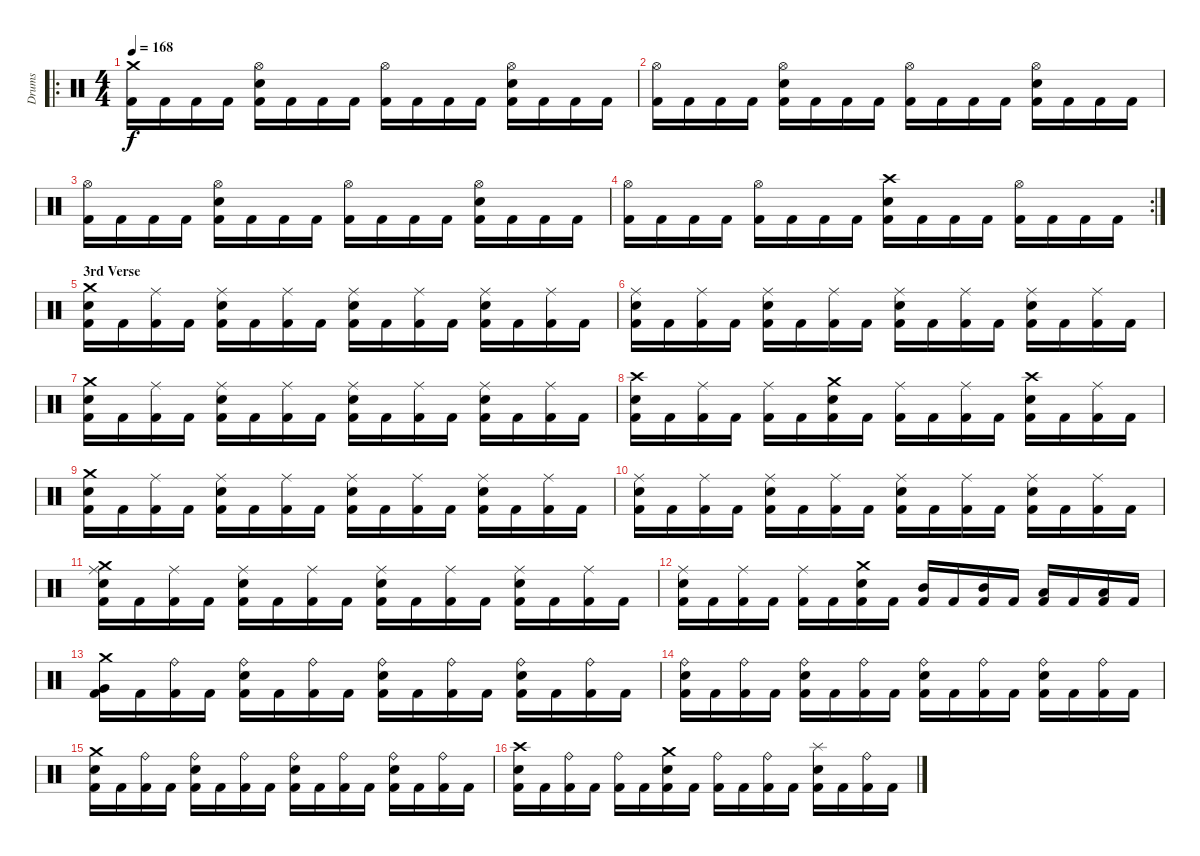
\track ("Drums" "Drums") {instrument percussion}
\staff {score}
\articulation defaults
\ro
\ts (4 4)
\tempo 168
\clef neutral
\ks c
("Kick (hit) 2" "Crash medium (hit)").16{dy f} "Kick (hit) 2".16 "Kick (hit) 2".16 "Kick (hit) 2".16 ("Kick (hit) 2" "Snare (hit) 2" "Hi-Hat (open)").16 "Kick (hit) 2".16 "Kick (hit) 2".16 "Kick (hit) 2".16 ("Kick (hit) 2" "Hi-Hat (open)").16 "Kick (hit) 2".16 "Kick (hit) 2".16 "Kick (hit) 2".16 ("Kick (hit) 2" "Snare (hit) 2" "Hi-Hat (open)").16 "Kick (hit) 2".16 "Kick (hit) 2".16 "Kick (hit) 2".16 |
("Kick (hit) 2" "Hi-Hat (open)").16 "Kick (hit) 2".16 "Kick (hit) 2".16 "Kick (hit) 2".16 ("Kick (hit) 2" "Snare (hit) 2" "Hi-Hat (open)").16 "Kick (hit) 2".16 "Kick (hit) 2".16 "Kick (hit) 2".16 ("Kick (hit) 2" "Hi-Hat (open)").16 "Kick (hit) 2".16 "Kick (hit) 2".16 "Kick (hit) 2".16 ("Kick (hit) 2" "Snare (hit) 2" "Hi-Hat (open)").16 "Kick (hit) 2".16 "Kick (hit) 2".16 "Kick (hit) 2".16 |
("Kick (hit) 2" "Hi-Hat (open)").16 "Kick (hit) 2".16 "Kick (hit) 2".16 "Kick (hit) 2".16 ("Kick (hit) 2" "Snare (hit) 2" "Hi-Hat (open)").16 "Kick (hit) 2".16 "Kick (hit) 2".16 "Kick (hit) 2".16 ("Kick (hit) 2" "Hi-Hat (open)").16 "Kick (hit) 2".16 "Kick (hit) 2".16 "Kick (hit) 2".16 ("Kick (hit) 2" "Snare (hit) 2" "Hi-Hat (open)").16 "Kick (hit) 2".16 "Kick (hit) 2".16 "Kick (hit) 2".16 |
\rc 2
("Kick (hit) 2" "Hi-Hat (open)").16 "Kick (hit) 2".16 "Kick (hit) 2".16 "Kick (hit) 2".16 ("Kick (hit) 2" "Hi-Hat (open)").16 "Kick (hit) 2".16 "Kick (hit) 2".16 "Kick (hit) 2".16 ("Kick (hit) 2" "Snare (hit) 2" "Crash high (hit)").16 "Kick (hit) 2".16 "Kick (hit) 2".16 "Kick (hit) 2".16 ("Kick (hit) 2" "Hi-Hat (open)").16 "Kick (hit) 2".16 "Kick (hit) 2".16 "Kick (hit) 2".16 |
\section ("" "3rd Verse")
("Kick (hit) 2" "Snare (hit) 2" "Crash medium (hit)").16 "Kick (hit) 2".16 ("Kick (hit) 2" "Ride (middle)").16 "Kick (hit) 2".16 ("Kick (hit) 2" "Snare (hit) 2" "Ride (middle)").16 "Kick (hit) 2".16 ("Kick (hit) 2" "Ride (middle)").16 "Kick (hit) 2".16 ("Kick (hit) 2" "Snare (hit) 2" "Ride (middle)").16 "Kick (hit) 2".16 ("Kick (hit) 2" "Ride (middle)").16 "Kick (hit) 2".16 ("Kick (hit) 2" "Snare (hit) 2" "Ride (middle)").16 "Kick (hit) 2".16 ("Kick (hit) 2" "Ride (middle)").16 "Kick (hit) 2".16 |
("Kick (hit) 2" "Snare (hit) 2" "Ride (middle)").16 "Kick (hit) 2".16 ("Kick (hit) 2" "Ride (middle)").16 "Kick (hit) 2".16 ("Kick (hit) 2" "Snare (hit) 2" "Ride (middle)").16 "Kick (hit) 2".16 ("Kick (hit) 2" "Ride (middle)").16 "Kick (hit) 2".16 ("Kick (hit) 2" "Snare (hit) 2" "Ride (middle)").16 "Kick (hit) 2".16 ("Kick (hit) 2" "Ride (middle)").16 "Kick (hit) 2".16 ("Kick (hit) 2" "Snare (hit) 2" "Ride (middle)").16 "Kick (hit) 2".16 ("Kick (hit) 2" "Ride (middle)").16 "Kick (hit) 2".16 |
("Kick (hit) 2" "Snare (hit) 2" "Crash medium (hit)").16 "Kick (hit) 2".16 ("Kick (hit) 2" "Ride (middle)").16 "Kick (hit) 2".16 ("Kick (hit) 2" "Snare (hit) 2" "Ride (middle)").16 "Kick (hit) 2".16 ("Kick (hit) 2" "Ride (middle)").16 "Kick (hit) 2".16 ("Kick (hit) 2" "Snare (hit) 2" "Ride (middle)").16 "Kick (hit) 2".16 ("Kick (hit) 2" "Ride (middle)").16 "Kick (hit) 2".16 ("Kick (hit) 2" "Snare (hit) 2" "Ride (middle)").16 "Kick (hit) 2".16 ("Kick (hit) 2" "Ride (middle)").16 "Kick (hit) 2".16 |
("Kick (hit) 2" "Snare (hit) 2" "Crash high (hit)").16 "Kick (hit) 2".16 ("Kick (hit) 2" "Ride (middle)").16 "Kick (hit) 2".16 ("Kick (hit) 2" "Ride (middle)").16 "Kick (hit) 2".16 ("Kick (hit) 2" "Snare (hit) 2" "Crash medium (hit)").16 "Kick (hit) 2".16 ("Kick (hit) 2" "Ride (middle)").16 "Kick (hit) 2".16 ("Kick (hit) 2" "Ride (middle)").16 "Kick (hit) 2".16 ("Kick (hit) 2" "Snare (hit) 2" "Crash high (hit)").16 "Kick (hit) 2".16 ("Kick (hit) 2" "Ride (middle)").16 "Kick (hit) 2".16 |
("Kick (hit) 2" "Snare (hit) 2" "Crash medium (hit)").16 "Kick (hit) 2".16 ("Kick (hit) 2" "Ride (middle)").16 "Kick (hit) 2".16 ("Kick (hit) 2" "Snare (hit) 2" "Ride (middle)").16 "Kick (hit) 2".16 ("Kick (hit) 2" "Ride (middle)").16 "Kick (hit) 2".16 ("Kick (hit) 2" "Snare (hit) 2" "Ride (middle)").16 "Kick (hit) 2".16 ("Kick (hit) 2" "Ride (middle)").16 "Kick (hit) 2".16 ("Kick (hit) 2" "Snare (hit) 2" "Ride (middle)").16 "Kick (hit) 2".16 ("Kick (hit) 2" "Ride (middle)").16 "Kick (hit) 2".16 |
("Kick (hit) 2" "Snare (hit) 2" "Ride (middle)").16 "Kick (hit) 2".16 ("Kick (hit) 2" "Ride (middle)").16 "Kick (hit) 2".16 ("Kick (hit) 2" "Snare (hit) 2" "Ride (middle)").16 "Kick (hit) 2".16 ("Kick (hit) 2" "Ride (middle)").16 "Kick (hit) 2".16 ("Kick (hit) 2" "Snare (hit) 2" "Ride (middle)").16 "Kick (hit) 2".16 ("Kick (hit) 2" "Ride (middle)").16 "Kick (hit) 2".16 ("Kick (hit) 2" "Snare (hit) 2" "Ride (middle)").16 "Kick (hit) 2".16 ("Kick (hit) 2" "Ride (middle)").16 "Kick (hit) 2".16 |
("Kick (hit) 2" "Snare (hit) 2" "Ride (middle)" "Crash medium (hit)").16 "Kick (hit) 2".16 ("Kick (hit) 2" "Ride (middle)").16 "Kick (hit) 2".16 ("Kick (hit) 2" "Snare (hit) 2" "Ride (middle)").16 "Kick (hit) 2".16 ("Kick (hit) 2" "Ride (middle)").16 "Kick (hit) 2".16 ("Kick (hit) 2" "Snare (hit) 2" "Ride (middle)").16 "Kick (hit) 2".16 ("Kick (hit) 2" "Ride (middle)").16 "Kick (hit) 2".16 ("Kick (hit) 2" "Snare (hit) 2" "Ride (middle)").16 "Kick (hit) 2".16 ("Kick (hit) 2" "Ride (middle)").16 "Kick (hit) 2".16 |
("Kick (hit) 2" "Snare (hit) 2" "Ride (middle)").16 "Kick (hit) 2".16 ("Kick (hit) 2" "Ride (middle)").16 "Kick (hit) 2".16 ("Kick (hit) 2" "Ride (middle)").16 "Kick (hit) 2".16 ("Kick (hit) 2" "Snare (hit) 2" "Crash medium (hit)").16 "Kick (hit) 2".16 ("Kick (hit) 2" "Mid Tom (hit)").16 "Kick (hit) 2".16 ("Kick (hit) 2" "Mid Tom (hit)").16 "Kick (hit) 2".16 ("Kick (hit) 2" "Low Tom (hit)").16 "Kick (hit) 2".16 ("Kick (hit) 2" "Low Tom (hit)").16 "Kick (hit) 2".16 |
("Kick (hit) 2" "Very Low Tom (hit)" "Crash medium (hit)").16 "Kick (hit) 2".16 ("Kick (hit) 2" "Ride (bell)").16 "Kick (hit) 2".16 ("Kick (hit) 2" "Snare (hit) 2" "Ride (bell)").16 "Kick (hit) 2".16 ("Kick (hit) 2" "Ride (bell)").16 "Kick (hit) 2".16 ("Kick (hit) 2" "Snare (hit) 2" "Ride (bell)").16 "Kick (hit) 2".16 ("Kick (hit) 2" "Ride (bell)").16 "Kick (hit) 2".16 ("Kick (hit) 2" "Snare (hit) 2" "Ride (bell)").16 "Kick (hit) 2".16 ("Kick (hit) 2" "Ride (bell)").16 "Kick (hit) 2".16 |
("Kick (hit) 2" "Snare (hit) 2" "Ride (bell)").16 "Kick (hit) 2".16 ("Kick (hit) 2" "Ride (bell)").16 "Kick (hit) 2".16 ("Kick (hit) 2" "Snare (hit) 2" "Ride (bell)").16 "Kick (hit) 2".16 ("Kick (hit) 2" "Ride (bell)").16 "Kick (hit) 2".16 ("Kick (hit) 2" "Snare (hit) 2" "Ride (bell)").16 "Kick (hit) 2".16 ("Kick (hit) 2" "Ride (bell)").16 "Kick (hit) 2".16 ("Kick (hit) 2" "Snare (hit) 2" "Ride (bell)").16 "Kick (hit) 2".16 ("Kick (hit) 2" "Ride (bell)").16 "Kick (hit) 2".16 |
("Kick (hit) 2" "Snare (hit) 2" "Crash medium (hit)").16 "Kick (hit) 2".16 ("Kick (hit) 2" "Ride (bell)").16 "Kick (hit) 2".16 ("Kick (hit) 2" "Snare (hit) 2" "Ride (bell)").16 "Kick (hit) 2".16 ("Kick (hit) 2" "Ride (bell)").16 "Kick (hit) 2".16 ("Kick (hit) 2" "Snare (hit) 2" "Ride (bell)").16 "Kick (hit) 2".16 ("Kick (hit) 2" "Ride (bell)").16 "Kick (hit) 2".16 ("Kick (hit) 2" "Snare (hit) 2" "Ride (bell)").16 "Kick (hit) 2".16 ("Kick (hit) 2" "Ride (bell)").16 "Kick (hit) 2".16 |
("Kick (hit) 2" "Snare (hit) 2" "Crash high (hit)").16 "Kick (hit) 2".16 ("Kick (hit) 2" "Ride (bell)").16 "Kick (hit) 2".16 ("Kick (hit) 2" "Ride (bell)").16 "Kick (hit) 2".16 ("Kick (hit) 2" "Snare (hit) 2" "Crash medium (hit)").16 "Kick (hit) 2".16 ("Kick (hit) 2" "Ride (bell)").16 "Kick (hit) 2".16 ("Kick (hit) 2" "Ride (bell)").16 "Kick (hit) 2".16 ("Kick (hit) 2" "Snare (hit) 2" "Splash (hit)").16 "Kick (hit) 2".16 ("Kick (hit) 2" "Ride (bell)").16 "Kick (hit) 2".16
